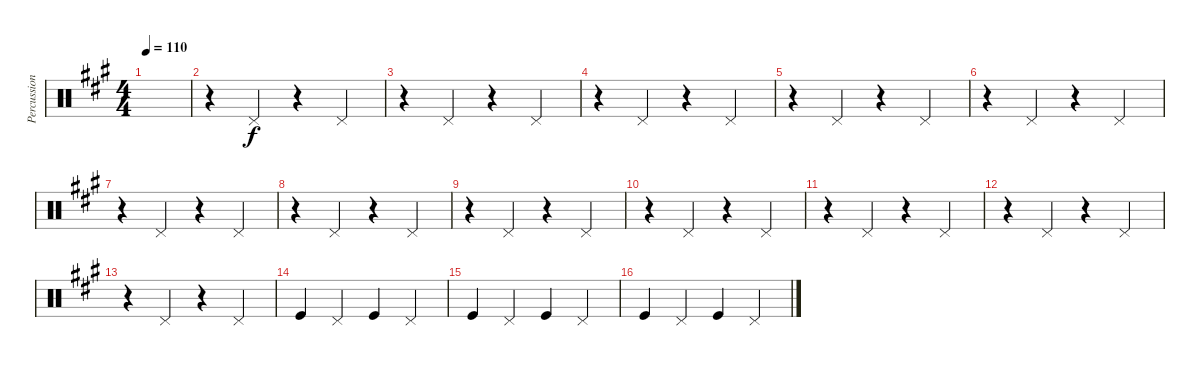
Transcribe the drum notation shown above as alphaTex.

\track ("Percussion" "Percussion") {instrument percussion}
\staff {score}
\articulation defaults
\ts (4 4)
\tempo 110
\clef neutral
\ks a
|
r.4 "Pedal Hi-Hat (hit)".4 r.4 "Pedal Hi-Hat (hit)".4 |
r.4 "Pedal Hi-Hat (hit)".4 r.4 "Pedal Hi-Hat (hit)".4 |
r.4 "Pedal Hi-Hat (hit)".4 r.4 "Pedal Hi-Hat (hit)".4 |
r.4 "Pedal Hi-Hat (hit)".4 r.4 "Pedal Hi-Hat (hit)".4 |
r.4 "Pedal Hi-Hat (hit)".4 r.4 "Pedal Hi-Hat (hit)".4 |
r.4 "Pedal Hi-Hat (hit)".4 r.4 "Pedal Hi-Hat (hit)".4 |
r.4 "Pedal Hi-Hat (hit)".4 r.4 "Pedal Hi-Hat (hit)".4 |
r.4 "Pedal Hi-Hat (hit)".4 r.4 "Pedal Hi-Hat (hit)".4 |
r.4 "Pedal Hi-Hat (hit)".4 r.4 "Pedal Hi-Hat (hit)".4 |
r.4 "Pedal Hi-Hat (hit)".4 r.4 "Pedal Hi-Hat (hit)".4 |
r.4 "Pedal Hi-Hat (hit)".4 r.4 "Pedal Hi-Hat (hit)".4 |
r.4 "Pedal Hi-Hat (hit)".4 r.4 "Pedal Hi-Hat (hit)".4 |
"Kick (hit)".4 "Pedal Hi-Hat (hit)".4 "Kick (hit)".4 "Pedal Hi-Hat (hit)".4 |
"Kick (hit)".4 "Pedal Hi-Hat (hit)".4 "Kick (hit)".4 "Pedal Hi-Hat (hit)".4 |
"Kick (hit)".4 "Pedal Hi-Hat (hit)".4 "Kick (hit)".4 "Pedal Hi-Hat (hit)".4
